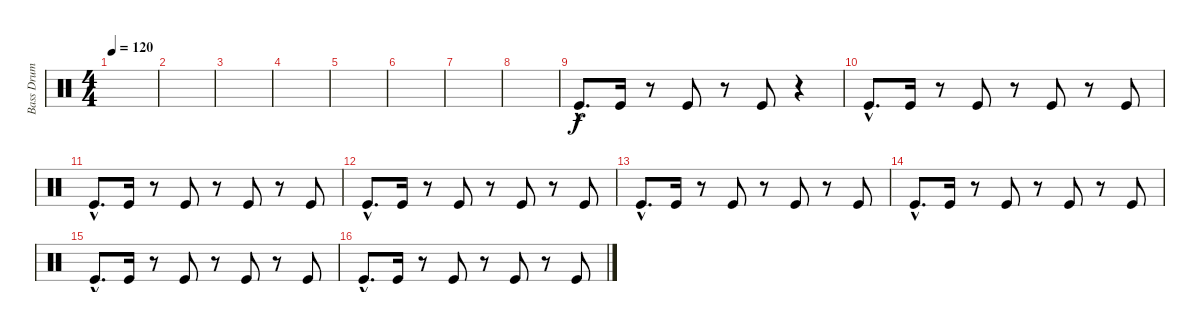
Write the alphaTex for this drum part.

\track ("Bass Drum" "Bass Drum") {instrument percussion}
\staff {score}
\articulation defaults
\ts (4 4)
\tempo 120
\clef neutral
\ks c
|
|
|
|
|
|
|
|
"Kick (hit)"{hac}.8{d} "Kick (hit)".16 r.8 "Kick (hit)".8 r.8 "Kick (hit)".8 r.4 |
"Kick (hit)"{hac}.8{d} "Kick (hit)".16 r.8 "Kick (hit)".8 r.8 "Kick (hit)".8 r.8 "Kick (hit)".8 |
"Kick (hit)"{hac}.8{d} "Kick (hit)".16 r.8 "Kick (hit)".8 r.8 "Kick (hit)".8 r.8 "Kick (hit)".8 |
"Kick (hit)"{hac}.8{d} "Kick (hit)".16 r.8 "Kick (hit)".8 r.8 "Kick (hit)".8 r.8 "Kick (hit)".8 |
"Kick (hit)"{hac}.8{d} "Kick (hit)".16 r.8 "Kick (hit)".8 r.8 "Kick (hit)".8 r.8 "Kick (hit)".8 |
"Kick (hit)"{hac}.8{d} "Kick (hit)".16 r.8 "Kick (hit)".8 r.8 "Kick (hit)".8 r.8 "Kick (hit)".8 |
"Kick (hit)"{hac}.8{d} "Kick (hit)".16 r.8 "Kick (hit)".8 r.8 "Kick (hit)".8 r.8 "Kick (hit)".8 |
"Kick (hit)"{hac}.8{d} "Kick (hit)".16 r.8 "Kick (hit)".8 r.8 "Kick (hit)".8 r.8 "Kick (hit)".8
